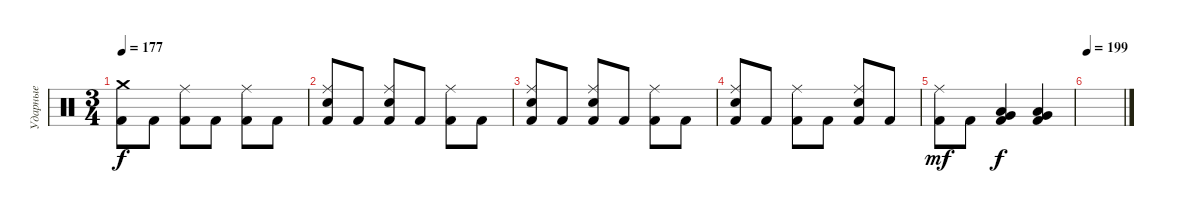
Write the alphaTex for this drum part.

\track ("Ударные" "Ударные") {instrument percussion}
\staff {score}
\articulation defaults
\ts (3 4)
\tempo 177
\clef neutral
\ks c
("Crash medium (hit)" "Kick (hit) 2").8{dy f} "Kick (hit) 2".8 ("Ride (middle)" "Kick (hit) 2").8 "Kick (hit) 2".8 ("Ride (middle)" "Kick (hit) 2").8 "Kick (hit) 2".8 |
("Ride (middle)" "Snare (hit) 2" "Kick (hit) 2").8 "Kick (hit) 2".8 ("Ride (middle)" "Snare (hit) 2" "Kick (hit) 2").8 "Kick (hit) 2".8 ("Ride (middle)" "Kick (hit) 2").8 "Kick (hit) 2".8 |
("Ride (middle)" "Snare (hit) 2" "Kick (hit) 2").8 "Kick (hit) 2".8 ("Ride (middle)" "Snare (hit) 2" "Kick (hit) 2").8 "Kick (hit) 2".8 ("Ride (middle)" "Kick (hit) 2").8 "Kick (hit) 2".8 |
("Ride (middle)" "Snare (hit) 2" "Kick (hit) 2").8 "Kick (hit) 2".8 ("Ride (middle)" "Kick (hit) 2").8 "Kick (hit) 2".8 ("Ride (middle)" "Snare (hit) 2" "Kick (hit) 2").8 "Kick (hit) 2".8 |
("Ride (middle)" "Kick (hit) 2").8{dy mf} "Kick (hit) 2".8 ("Low Tom (hit)" "Very Low Tom (hit)" "Kick (hit) 2").4{dy f} ("Low Tom (hit)" "Very Low Tom (hit)" "Kick (hit) 2").4 |
\tempo 199
